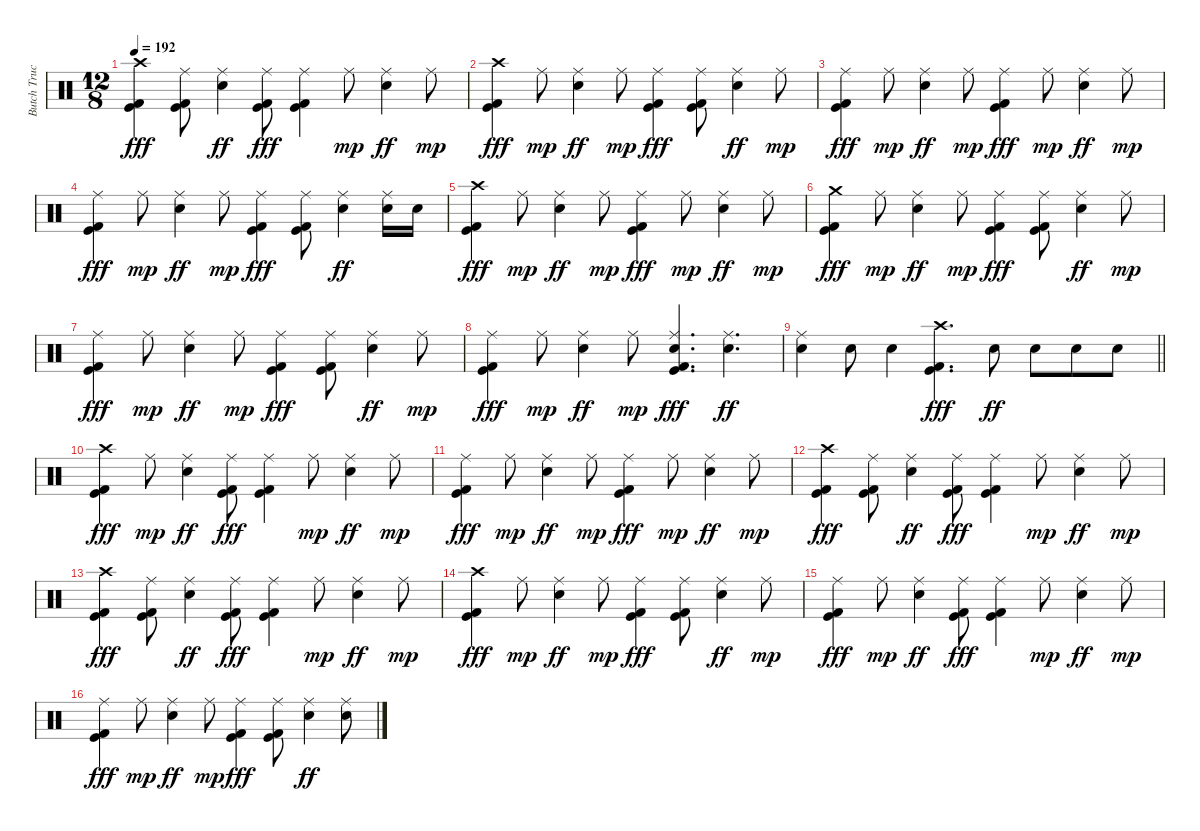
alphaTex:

\track ("Butch Trucks, Jaimoe - Drums" "Butch Truc") {instrument percussion}
\staff {score}
\articulation defaults
\ts (12 8)
\tempo 192
\clef neutral
\ks c
("Crash high (hit)" "Kick (hit)" "Kick (hit) 2").4{dy fff} ("Ride (middle)" "Kick (hit)" "Kick (hit) 2").8 ("Ride (middle)" "Snare (hit) 2").4{dy ff} ("Ride (middle)" "Kick (hit)" "Kick (hit) 2").8{dy fff} ("Ride (middle)" "Kick (hit)" "Kick (hit) 2").4 "Ride (middle)".8{dy mp} ("Ride (middle)" "Snare (hit) 2").4{dy ff} "Ride (middle)".8{dy mp} |
("Crash high (hit)" "Kick (hit)" "Kick (hit) 2").4{dy fff} "Ride (middle)".8{dy mp} ("Ride (middle)" "Snare (hit) 2").4{dy ff} "Ride (middle)".8{dy mp} ("Ride (middle)" "Kick (hit)" "Kick (hit) 2").4{dy fff} ("Ride (middle)" "Kick (hit)" "Kick (hit) 2").8 ("Ride (middle)" "Snare (hit) 2").4{dy ff} "Ride (middle)".8{dy mp} |
("Ride (middle)" "Kick (hit)" "Kick (hit) 2").4{dy fff} "Ride (middle)".8{dy mp} ("Ride (middle)" "Snare (hit) 2").4{dy ff} "Ride (middle)".8{dy mp} ("Ride (middle)" "Kick (hit)" "Kick (hit) 2").4{dy fff} "Ride (middle)".8{dy mp} ("Ride (middle)" "Snare (hit) 2").4{dy ff} "Ride (middle)".8{dy mp} |
("Ride (middle)" "Kick (hit)" "Kick (hit) 2").4{dy fff} "Ride (middle)".8{dy mp} ("Ride (middle)" "Snare (hit) 2").4{dy ff} "Ride (middle)".8{dy mp} ("Ride (middle)" "Kick (hit)" "Kick (hit) 2").4{dy fff} ("Ride (middle)" "Kick (hit)" "Kick (hit) 2").8 ("Ride (middle)" "Snare (hit) 2").4{dy ff} ("Ride (middle)" "Snare (hit) 2").16 "Snare (hit) 2".16 |
("Crash high (hit)" "Kick (hit)" "Kick (hit) 2").4{dy fff} "Ride (middle)".8{dy mp} ("Ride (middle)" "Snare (hit) 2").4{dy ff} "Ride (middle)".8{dy mp} ("Ride (middle)" "Kick (hit)" "Kick (hit) 2").4{dy fff} "Ride (middle)".8{dy mp} ("Ride (middle)" "Snare (hit) 2").4{dy ff} "Ride (middle)".8{dy mp} |
("Crash medium (hit)" "Kick (hit)" "Kick (hit) 2").4{dy fff} "Ride (middle)".8{dy mp} ("Ride (middle)" "Snare (hit) 2").4{dy ff} "Ride (middle)".8{dy mp} ("Ride (middle)" "Kick (hit)" "Kick (hit) 2").4{dy fff} ("Ride (middle)" "Kick (hit)" "Kick (hit) 2").8 ("Ride (middle)" "Snare (hit) 2").4{dy ff} "Ride (middle)".8{dy mp} |
("Ride (middle)" "Kick (hit)" "Kick (hit) 2").4{dy fff} "Ride (middle)".8{dy mp} ("Ride (middle)" "Snare (hit) 2").4{dy ff} "Ride (middle)".8{dy mp} ("Ride (middle)" "Kick (hit)" "Kick (hit) 2").4{dy fff} ("Ride (middle)" "Kick (hit)" "Kick (hit) 2").8 ("Ride (middle)" "Snare (hit) 2").4{dy ff} "Ride (middle)".8{dy mp} |
("Ride (middle)" "Kick (hit)" "Kick (hit) 2").4{dy fff} "Ride (middle)".8{dy mp} ("Ride (middle)" "Snare (hit) 2").4{dy ff} "Ride (middle)".8{dy mp} ("Ride (middle)" "Snare (hit) 2" "Kick (hit)" "Kick (hit) 2").4{d dy fff} ("Ride (middle)" "Snare (hit) 2").4{d dy ff} |
\barLineRight lightlight
("Ride (middle)" "Snare (hit) 2").4 "Snare (hit) 2".8 "Snare (hit) 2".4 ("Crash high (hit)" "Kick (hit)" "Kick (hit) 2").4{d dy fff} "Snare (hit) 2".8{dy ff} "Snare (hit) 2".8 "Snare (hit) 2".8 "Snare (hit) 2".8 |
("Crash high (hit)" "Kick (hit)" "Kick (hit) 2").4{dy fff} "Ride (middle)".8{dy mp} ("Ride (middle)" "Snare (hit) 2").4{dy ff} ("Ride (middle)" "Kick (hit)" "Kick (hit) 2").8{dy fff} ("Ride (middle)" "Kick (hit)" "Kick (hit) 2").4 "Ride (middle)".8{dy mp} ("Ride (middle)" "Snare (hit) 2").4{dy ff} "Ride (middle)".8{dy mp} |
("Ride (middle)" "Kick (hit)" "Kick (hit) 2").4{dy fff} "Ride (middle)".8{dy mp} ("Ride (middle)" "Snare (hit) 2").4{dy ff} "Ride (middle)".8{dy mp} ("Ride (middle)" "Kick (hit)" "Kick (hit) 2").4{dy fff} "Ride (middle)".8{dy mp} ("Ride (middle)" "Snare (hit) 2").4{dy ff} "Ride (middle)".8{dy mp} |
("Crash high (hit)" "Kick (hit)" "Kick (hit) 2").4{dy fff} ("Ride (middle)" "Kick (hit)" "Kick (hit) 2").8 ("Ride (middle)" "Snare (hit) 2").4{dy ff} ("Ride (middle)" "Kick (hit)" "Kick (hit) 2").8{dy fff} ("Ride (middle)" "Kick (hit)" "Kick (hit) 2").4 "Ride (middle)".8{dy mp} ("Ride (middle)" "Snare (hit) 2").4{dy ff} "Ride (middle)".8{dy mp} |
("Crash high (hit)" "Kick (hit)" "Kick (hit) 2").4{dy fff} ("Ride (middle)" "Kick (hit)" "Kick (hit) 2").8 ("Ride (middle)" "Snare (hit) 2").4{dy ff} ("Ride (middle)" "Kick (hit)" "Kick (hit) 2").8{dy fff} ("Ride (middle)" "Kick (hit)" "Kick (hit) 2").4 "Ride (middle)".8{dy mp} ("Ride (middle)" "Snare (hit) 2").4{dy ff} "Ride (middle)".8{dy mp} |
("Crash high (hit)" "Kick (hit)" "Kick (hit) 2").4{dy fff} "Ride (middle)".8{dy mp} ("Ride (middle)" "Snare (hit) 2").4{dy ff} "Ride (middle)".8{dy mp} ("Ride (middle)" "Kick (hit)" "Kick (hit) 2").4{dy fff} ("Ride (middle)" "Kick (hit)" "Kick (hit) 2").8 ("Ride (middle)" "Snare (hit) 2").4{dy ff} "Ride (middle)".8{dy mp} |
("Ride (middle)" "Kick (hit)" "Kick (hit) 2").4{dy fff} "Ride (middle)".8{dy mp} ("Ride (middle)" "Snare (hit) 2").4{dy ff} ("Ride (middle)" "Kick (hit)" "Kick (hit) 2").8{dy fff} ("Ride (middle)" "Kick (hit)" "Kick (hit) 2").4 "Ride (middle)".8{dy mp} ("Ride (middle)" "Snare (hit) 2").4{dy ff} "Ride (middle)".8{dy mp} |
("Ride (middle)" "Kick (hit)" "Kick (hit) 2").4{dy fff} "Ride (middle)".8{dy mp} ("Ride (middle)" "Snare (hit) 2").4{dy ff} "Ride (middle)".8{dy mp} ("Ride (middle)" "Kick (hit)" "Kick (hit) 2").4{dy fff} ("Ride (middle)" "Kick (hit)" "Kick (hit) 2").8 ("Ride (middle)" "Snare (hit) 2").4{dy ff} ("Ride (middle)" "Snare (hit) 2").8
